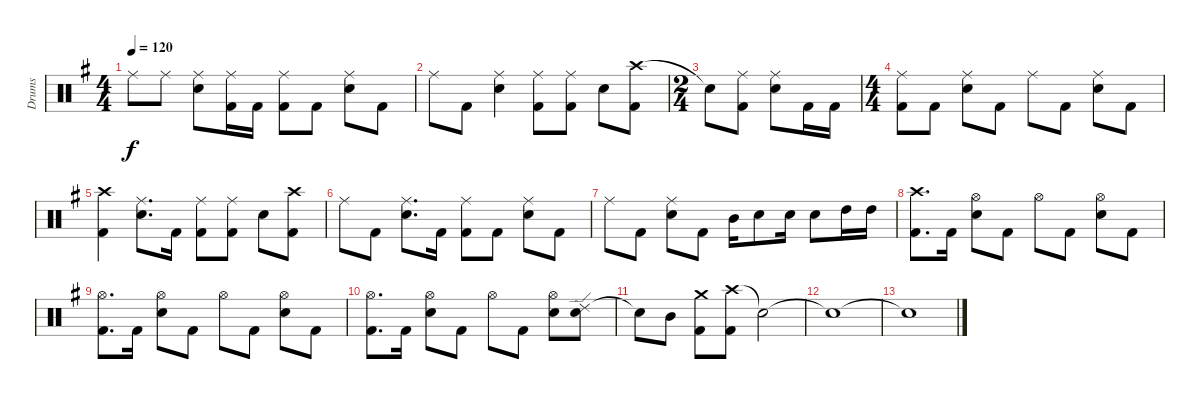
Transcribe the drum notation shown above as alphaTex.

\track ("Drums" "Drums") {instrument percussion}
\staff {score}
\articulation defaults
\ts (4 4)
\tempo 120
\clef neutral
\ks g "Ride (middle)".8{dy f} "Ride (middle)".8
("Ride (middle)" "Snare (hit) 2").8 ("Ride (middle)" "Kick (hit) 2").16 "Kick (hit) 2".16 ("Ride (middle)" "Kick (hit) 2").8 "Kick (hit) 2".8 ("Ride (middle)" "Snare (hit) 2").8 "Kick (hit) 2".8 |
"Ride (middle)".8 "Kick (hit) 2".8 ("Ride (middle)" "Snare (hit) 2").4 ("Ride (middle)" "Kick (hit) 2").8 ("Ride (middle)" "Kick (hit) 2").8 "Snare (hit) 2".8 ("Crash high (hit)" "Kick (hit) 2").8 |
\ts (2 4)
"Snare (hit)"{t}.8 ("Ride (middle)" "Kick (hit) 2").8 ("Ride (middle)" "Snare (hit) 2").8 "Kick (hit) 2".16 "Kick (hit) 2".16 |
\ts (4 4)
("Ride (middle)" "Kick (hit) 2").8 "Kick (hit) 2".8 ("Ride (middle)" "Snare (hit) 2").8 "Kick (hit) 2".8 "Ride (middle)".8 "Kick (hit) 2".8 ("Ride (middle)" "Snare (hit) 2").8 "Kick (hit) 2".8 |
("Crash high (hit)" "Kick (hit) 2").4 ("Ride (middle)" "Snare (hit) 2").8{d} "Kick (hit) 2".16 ("Ride (middle)" "Kick (hit) 2").8 ("Ride (middle)" "Kick (hit) 2").8 "Snare (hit) 2".8 ("Crash high (hit)" "Kick (hit) 2").8 |
"Ride (middle)".8 "Kick (hit) 2".8 ("Ride (middle)" "Snare (hit) 2").8{d} "Kick (hit) 2".16 ("Ride (middle)" "Kick (hit) 2").8 "Kick (hit) 2".8 ("Ride (middle)" "Snare (hit) 2").8 "Kick (hit) 2".8 |
"Ride (middle)".8 "Kick (hit) 2".8 ("Ride (middle)" "Snare (hit) 2").8 "Kick (hit) 2".8 "Mid Tom (hit)".16 "Snare (hit) 2".8 "Snare (hit) 2".16 "Snare (hit) 2".8 "High Tom (hit)".16 "High Tom (hit)".16 |
("Crash high (hit)" "Kick (hit) 2").8{d} "Kick (hit) 2".16 ("Hi-Hat (open)" "Snare (hit) 2").8 "Kick (hit) 2".8 "Hi-Hat (open)".8 "Kick (hit) 2".8 ("Hi-Hat (open)" "Snare (hit) 2").8 "Kick (hit) 2".8 |
("Hi-Hat (open)" "Kick (hit) 2").8{d} "Kick (hit) 2".16 ("Hi-Hat (open)" "Snare (hit) 2").8 "Kick (hit) 2".8 "Hi-Hat (open)".8 "Kick (hit) 2".8 ("Hi-Hat (open)" "Snare (hit) 2").8 "Kick (hit) 2".8 |
("Hi-Hat (open)" "Kick (hit) 2").8{d} "Kick (hit) 2".16 ("Hi-Hat (open)" "Snare (hit) 2").8 "Kick (hit) 2".8 "Hi-Hat (open)".8 "Kick (hit) 2".8 ("Hi-Hat (open)" "Snare (hit) 2").8 ("Ride (edge) 2" "Snare (hit) 2").8 |
"Snare (hit)"{t}.8 "Mid Tom (hit)".8 ("Crash medium (hit)" "Kick (hit) 2").8 ("Crash high (hit)" "Kick (hit) 2").8 "Snare (hit)"{t}.2 |
"Snare (hit)"{t}.1{volume 0} |
"Snare (hit)"{t}.1
